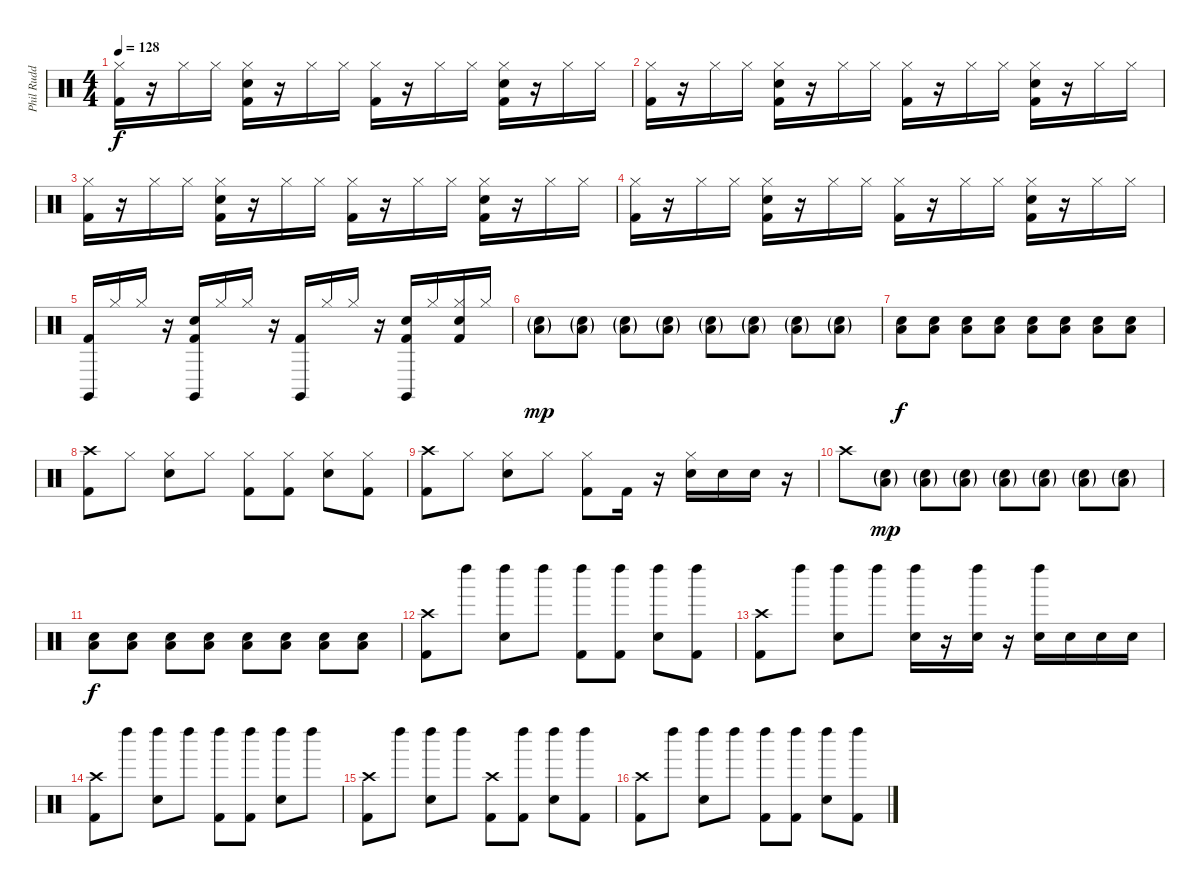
\track ("Phil Rudd" "Phil Rudd") {instrument percussion}
\staff {score}
\articulation defaults
\ts (4 4)
\tempo 128
\clef neutral
\ks c
("Hi-Hat (closed)" "Kick (hit) 2").16{dy f} r.16 "Hi-Hat (closed)".16 "Hi-Hat (closed)".16 ("Hi-Hat (closed)" "Snare (hit) 2" "Kick (hit) 2").16 r.16 "Hi-Hat (closed)".16 "Hi-Hat (closed)".16 ("Hi-Hat (closed)" "Kick (hit) 2").16 r.16 "Hi-Hat (closed)".16 "Hi-Hat (closed)".16 ("Hi-Hat (closed)" "Snare (hit) 2" "Kick (hit) 2").16 r.16 "Hi-Hat (closed)".16 "Hi-Hat (closed)".16 |
("Hi-Hat (closed)" "Kick (hit) 2").16 r.16 "Hi-Hat (closed)".16 "Hi-Hat (closed)".16 ("Hi-Hat (closed)" "Snare (hit) 2" "Kick (hit) 2").16 r.16 "Hi-Hat (closed)".16 "Hi-Hat (closed)".16 ("Hi-Hat (closed)" "Kick (hit) 2").16 r.16 "Hi-Hat (closed)".16 "Hi-Hat (closed)".16 ("Hi-Hat (closed)" "Snare (hit) 2" "Kick (hit) 2").16 r.16 "Hi-Hat (closed)".16 "Hi-Hat (closed)".16 |
("Hi-Hat (closed)" "Kick (hit) 2").16 r.16 "Hi-Hat (closed)".16 "Hi-Hat (closed)".16 ("Hi-Hat (closed)" "Snare (hit) 2" "Kick (hit) 2").16 r.16 "Hi-Hat (closed)".16 "Hi-Hat (closed)".16 ("Hi-Hat (closed)" "Kick (hit) 2").16 r.16 "Hi-Hat (closed)".16 "Hi-Hat (closed)".16 ("Hi-Hat (closed)" "Snare (hit) 2" "Kick (hit) 2").16 r.16 "Hi-Hat (closed)".16 "Hi-Hat (closed)".16 |
("Hi-Hat (closed)" "Kick (hit) 2").16 r.16 "Hi-Hat (closed)".16 "Hi-Hat (closed)".16 ("Hi-Hat (closed)" "Snare (hit) 2" "Kick (hit) 2").16 r.16 "Hi-Hat (closed)".16 "Hi-Hat (closed)".16 ("Hi-Hat (closed)" "Kick (hit) 2").16 r.16 "Hi-Hat (closed)".16 "Hi-Hat (closed)".16 ("Hi-Hat (closed)" "Snare (hit) 2" "Kick (hit) 2").16 r.16 "Hi-Hat (closed)".16 "Hi-Hat (closed)".16 |
("Claves (hit)" "Kick (hit) 2").16 "Hi-Hat (closed)".16 "Hi-Hat (closed)".16 r.16 ("Claves (hit)" "Snare (hit) 2" "Kick (hit) 2").16 "Hi-Hat (closed)".16 "Hi-Hat (closed)".16 r.16 ("Claves (hit)" "Kick (hit) 2").16 "Hi-Hat (closed)".16 "Hi-Hat (closed)".16 r.16 ("Claves (hit)" "Snare (hit) 2" "Kick (hit) 2").16 "Hi-Hat (closed)".16 ("Hi-Hat (closed)" "Snare (hit) 2" "Kick (hit) 2").16 "Hi-Hat (closed)".16 |
("Snare (hit) 2"{g} "Low Tom (hit)"{g}).8{dy mp} ("Snare (hit) 2"{g} "Low Tom (hit)"{g}).8 ("Snare (hit) 2"{g} "Low Tom (hit)"{g}).8 ("Snare (hit) 2"{g} "Low Tom (hit)"{g}).8 ("Snare (hit) 2"{g} "Low Tom (hit)"{g}).8 ("Snare (hit) 2"{g} "Low Tom (hit)"{g}).8 ("Snare (hit) 2"{g} "Low Tom (hit)"{g}).8 ("Snare (hit) 2"{g} "Low Tom (hit)"{g}).8 |
("Snare (hit) 2" "Low Tom (hit)").8{dy f} ("Snare (hit) 2" "Low Tom (hit)").8 ("Snare (hit) 2" "Low Tom (hit)").8 ("Snare (hit) 2" "Low Tom (hit)").8 ("Snare (hit) 2" "Low Tom (hit)").8 ("Snare (hit) 2" "Low Tom (hit)").8 ("Snare (hit) 2" "Low Tom (hit)").8 ("Snare (hit) 2" "Low Tom (hit)").8 |
("Crash high (hit)" "Kick (hit) 2").8 "Hi-Hat (closed)".8 ("Hi-Hat (closed)" "Snare (hit) 2").8 "Hi-Hat (closed)".8 ("Hi-Hat (closed)" "Kick (hit) 2").8 ("Hi-Hat (closed)" "Kick (hit) 2").8 ("Hi-Hat (closed)" "Snare (hit) 2").8 ("Hi-Hat (closed)" "Kick (hit) 2").8 |
("Crash high (hit)" "Kick (hit) 2").8 "Hi-Hat (closed)".8 ("Hi-Hat (closed)" "Snare (hit) 2").8 "Hi-Hat (closed)".8 ("Hi-Hat (closed)" "Kick (hit) 2").8 "Kick (hit) 2".16 r.16 ("Hi-Hat (closed)" "Snare (hit) 2").16 "Snare (hit) 2".16 "Snare (hit) 2".16 r.16 |
"Crash high (hit)".8 ("Snare (hit) 2"{g} "Low Tom (hit)"{g}).8{dy mp} ("Snare (hit) 2"{g} "Low Tom (hit)"{g}).8 ("Snare (hit) 2"{g} "Low Tom (hit)"{g}).8 ("Snare (hit) 2"{g} "Low Tom (hit)"{g}).8 ("Snare (hit) 2"{g} "Low Tom (hit)"{g}).8 ("Snare (hit) 2"{g} "Low Tom (hit)"{g}).8 ("Snare (hit) 2"{g} "Low Tom (hit)"{g}).8 |
("Snare (hit) 2" "Low Tom (hit)").8{dy f} ("Snare (hit) 2" "Low Tom (hit)").8 ("Snare (hit) 2" "Low Tom (hit)").8 ("Snare (hit) 2" "Low Tom (hit)").8 ("Snare (hit) 2" "Low Tom (hit)").8 ("Snare (hit) 2" "Low Tom (hit)").8 ("Snare (hit) 2" "Low Tom (hit)").8 ("Snare (hit) 2" "Low Tom (hit)").8 |
("Crash high (hit)" "Kick (hit) 2").8 "Left Maraca (hit)".8 ("Left Maraca (hit)" "Snare (hit) 2").8 "Left Maraca (hit)".8 ("Left Maraca (hit)" "Kick (hit) 2").8 ("Left Maraca (hit)" "Kick (hit) 2").8 ("Left Maraca (hit)" "Snare (hit) 2").8 ("Left Maraca (hit)" "Kick (hit) 2").8 |
("Crash high (hit)" "Kick (hit) 2").8 "Left Maraca (hit)".8 ("Left Maraca (hit)" "Snare (hit) 2").8 "Left Maraca (hit)".8 ("Left Maraca (hit)" "Snare (hit) 2").16 r.16 ("Left Maraca (hit)" "Snare (hit) 2").16 r.16 ("Left Maraca (hit)" "Snare (hit) 2").16 "Snare (hit) 2".16 "Snare (hit) 2".16 "Snare (hit) 2".16 |
("Crash high (hit)" "Kick (hit) 2").8 "Left Maraca (hit)".8 ("Left Maraca (hit)" "Snare (hit) 2").8 "Left Maraca (hit)".8 ("Left Maraca (hit)" "Kick (hit) 2").8 ("Left Maraca (hit)" "Kick (hit) 2").8 ("Left Maraca (hit)" "Snare (hit) 2").8 "Left Maraca (hit)".8 |
("Crash high (hit)" "Kick (hit) 2").8 "Left Maraca (hit)".8 ("Left Maraca (hit)" "Snare (hit) 2").8 "Left Maraca (hit)".8 ("Crash high (hit)" "Kick (hit) 2").8 ("Left Maraca (hit)" "Kick (hit) 2").8 ("Left Maraca (hit)" "Snare (hit) 2").8 ("Left Maraca (hit)" "Kick (hit) 2").8 |
("Crash high (hit)" "Kick (hit) 2").8 "Left Maraca (hit)".8 ("Left Maraca (hit)" "Snare (hit) 2").8 "Left Maraca (hit)".8 ("Left Maraca (hit)" "Kick (hit) 2").8 ("Left Maraca (hit)" "Kick (hit) 2").8 ("Left Maraca (hit)" "Snare (hit) 2").8 ("Left Maraca (hit)" "Kick (hit) 2").8
